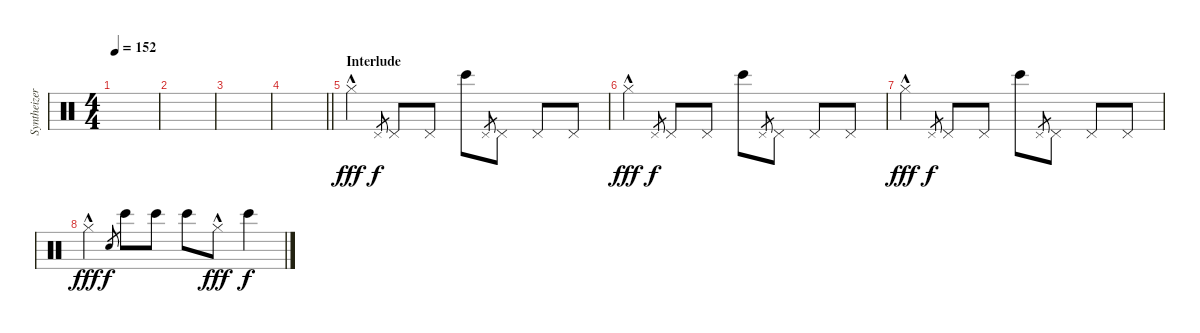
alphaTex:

\track ("Syntheizer" "Syntheizer") {instrument percussion}
\staff {score}
\articulation defaults
\ts (4 4)
\tempo 152
\clef neutral
\ks c
|
|
|
\barLineRight lightlight
|
\section ("" "Interlude")
"Hi-Hat (closed)"{hac}.4{dy fff} "Pedal Hi-Hat (hit)".8{gr dy f} "Pedal Hi-Hat (hit)".8 "Pedal Hi-Hat (hit)".8 "Bongo High (hit)".8 "Pedal Hi-Hat (hit)".8{gr} "Pedal Hi-Hat (hit)".8 "Pedal Hi-Hat (hit)".8 "Pedal Hi-Hat (hit)".8 |
"Hi-Hat (closed)"{hac}.4{dy fff} "Pedal Hi-Hat (hit)".8{gr dy f} "Pedal Hi-Hat (hit)".8 "Pedal Hi-Hat (hit)".8 "Bongo High (hit)".8 "Pedal Hi-Hat (hit)".8{gr} "Pedal Hi-Hat (hit)".8 "Pedal Hi-Hat (hit)".8 "Pedal Hi-Hat (hit)".8 |
"Hi-Hat (closed)"{hac}.4{dy fff} "Pedal Hi-Hat (hit)".8{gr dy f} "Pedal Hi-Hat (hit)".8 "Pedal Hi-Hat (hit)".8 "Bongo High (hit)".8 "Pedal Hi-Hat (hit)".8{gr} "Pedal Hi-Hat (hit)".8 "Pedal Hi-Hat (hit)".8 "Pedal Hi-Hat (hit)".8 |
"Hi-Hat (closed)"{hac}.4{dy fff} "Snare (hit)".8{gr dy f} "Bongo High (hit)".8 "Bongo High (hit)".8 "Bongo High (hit)".8 "Hi-Hat (closed)"{hac}.8{dy fff} "Bongo High (hit)".4{dy f}
